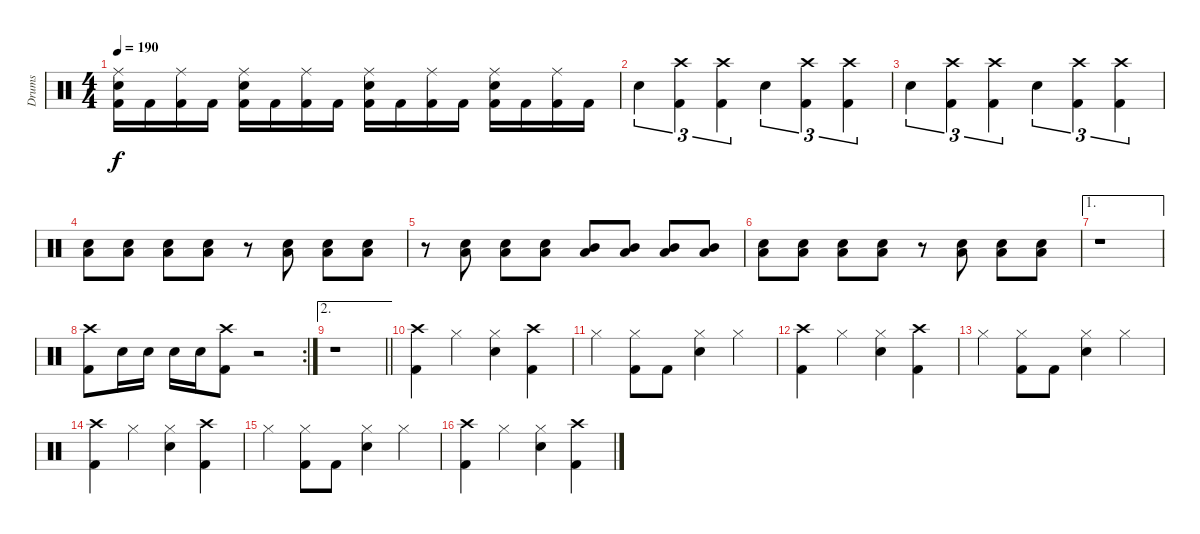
\track ("Drums" "Drums") {instrument percussion}
\staff {score}
\articulation defaults
\ts (4 4)
\tempo 190
\clef neutral
\ks c
("Ride (middle)" "Snare (hit) 2" "Kick (hit) 2").16{dy f} "Kick (hit) 2".16 ("Ride (middle)" "Kick (hit) 2").16 "Kick (hit) 2".16 ("Ride (middle)" "Snare (hit) 2" "Kick (hit) 2").16 "Kick (hit) 2".16 ("Ride (middle)" "Kick (hit) 2").16 "Kick (hit) 2".16 ("Ride (middle)" "Snare (hit) 2" "Kick (hit) 2").16 "Kick (hit) 2".16 ("Ride (middle)" "Kick (hit) 2").16 "Kick (hit) 2".16 ("Ride (middle)" "Snare (hit) 2" "Kick (hit) 2").16 "Kick (hit) 2".16 ("Ride (middle)" "Kick (hit) 2").16 "Kick (hit) 2".16 |
"Snare (hit) 2".4{tu (3 2)} ("Crash high (hit)" "Kick (hit) 2").4{tu (3 2)} ("Crash high (hit)" "Kick (hit) 2").4{tu (3 2)} "Snare (hit) 2".4{tu (3 2)} ("Crash high (hit)" "Kick (hit) 2").4{tu (3 2)} ("Crash high (hit)" "Kick (hit) 2").4{tu (3 2)} |
"Snare (hit) 2".4{tu (3 2)} ("Crash high (hit)" "Kick (hit) 2").4{tu (3 2)} ("Crash high (hit)" "Kick (hit) 2").4{tu (3 2)} "Snare (hit) 2".4{tu (3 2)} ("Crash high (hit)" "Kick (hit) 2").4{tu (3 2)} ("Crash high (hit)" "Kick (hit) 2").4{tu (3 2)} |
("Snare (hit) 2" "Low Floor Tom (hit)").8 ("Snare (hit) 2" "Low Floor Tom (hit)").8 ("Snare (hit) 2" "Low Floor Tom (hit)").8 ("Snare (hit) 2" "Low Floor Tom (hit)").8 r.8 ("Snare (hit) 2" "Low Floor Tom (hit)").8 ("Snare (hit) 2" "Low Floor Tom (hit)").8 ("Snare (hit) 2" "Low Floor Tom (hit)").8 |
r.8 ("Snare (hit) 2" "Low Floor Tom (hit)").8 ("Snare (hit) 2" "Low Floor Tom (hit)").8 ("Snare (hit) 2" "Low Floor Tom (hit)").8 ("Mid Tom (hit)" "Low Floor Tom (hit)").8 ("Mid Tom (hit)" "Low Floor Tom (hit)").8 ("Mid Tom (hit)" "Low Floor Tom (hit)").8 ("Mid Tom (hit)" "Low Floor Tom (hit)").8 |
("Snare (hit) 2" "Low Floor Tom (hit)").8 ("Snare (hit) 2" "Low Floor Tom (hit)").8 ("Snare (hit) 2" "Low Floor Tom (hit)").8 ("Snare (hit) 2" "Low Floor Tom (hit)").8 r.8 ("Snare (hit) 2" "Low Floor Tom (hit)").8 ("Snare (hit) 2" "Low Floor Tom (hit)").8 ("Snare (hit) 2" "Low Floor Tom (hit)").8 |
\ae 1
r.1 |
\rc 2
("Crash high (hit)" "Kick (hit) 2").8 "Snare (hit) 2".16 "Snare (hit) 2".16 "Snare (hit) 2".16 "Snare (hit) 2".16 ("Crash high (hit)" "Kick (hit) 2").8 r.2 |
\ae 2
\barLineRight lightlight
r.1 |
("Crash high (hit)" "Kick (hit) 2").4 "Hi-Hat (closed)".4 ("Hi-Hat (closed)" "Snare (hit) 2").4 ("Crash high (hit)" "Kick (hit) 2").4 |
"Hi-Hat (closed)".4 ("Hi-Hat (closed)" "Kick (hit) 2").8 "Kick (hit) 2".8 ("Hi-Hat (closed)" "Snare (hit) 2").4 "Hi-Hat (closed)".4 |
("Crash high (hit)" "Kick (hit) 2").4 "Hi-Hat (closed)".4 ("Hi-Hat (closed)" "Snare (hit) 2").4 ("Crash high (hit)" "Kick (hit) 2").4 |
"Hi-Hat (closed)".4 ("Hi-Hat (closed)" "Kick (hit) 2").8 "Kick (hit) 2".8 ("Hi-Hat (closed)" "Snare (hit) 2").4 "Hi-Hat (closed)".4 |
("Crash high (hit)" "Kick (hit) 2").4 "Hi-Hat (closed)".4 ("Hi-Hat (closed)" "Snare (hit) 2").4 ("Crash high (hit)" "Kick (hit) 2").4 |
"Hi-Hat (closed)".4 ("Hi-Hat (closed)" "Kick (hit) 2").8 "Kick (hit) 2".8 ("Hi-Hat (closed)" "Snare (hit) 2").4 "Hi-Hat (closed)".4 |
("Crash high (hit)" "Kick (hit) 2").4 "Hi-Hat (closed)".4 ("Hi-Hat (closed)" "Snare (hit) 2").4 ("Crash high (hit)" "Kick (hit) 2").4
